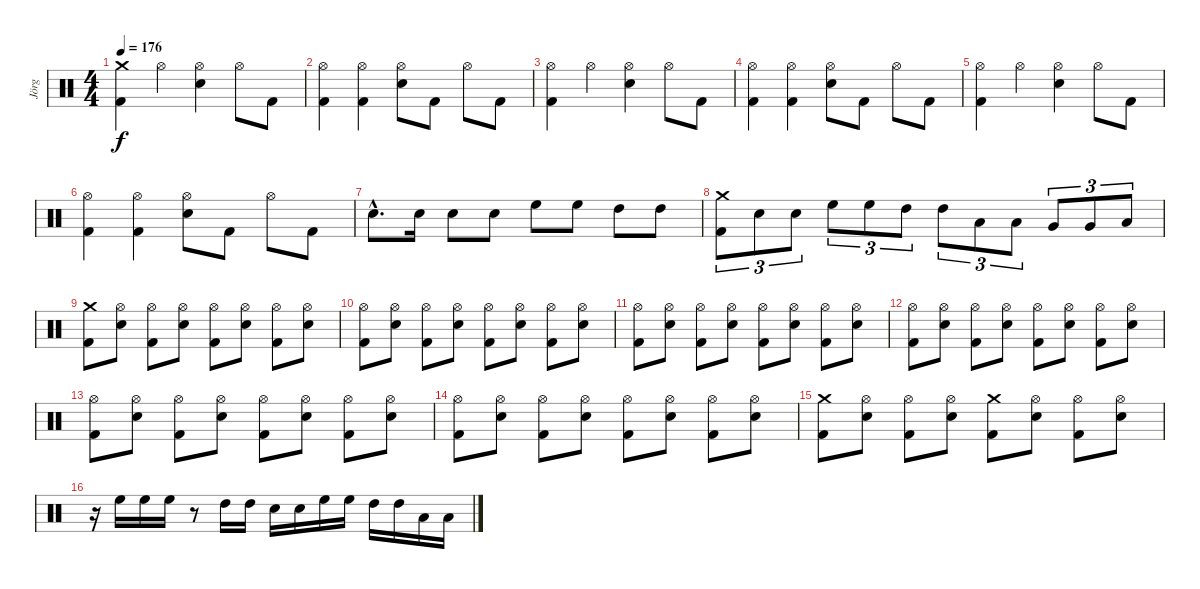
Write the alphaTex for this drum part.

\track ("Jörg" "Jörg") {instrument percussion}
\staff {score}
\articulation defaults
\ts (4 4)
\tempo 176
\clef neutral
\ks c
("Kick (hit) 2" "Crash medium (hit)").4{dy f} "Hi-Hat (open)".4 ("Snare (hit) 2" "Hi-Hat (open)").4 "Hi-Hat (open)".8 "Kick (hit) 2".8 |
("Hi-Hat (open)" "Kick (hit) 2").4 ("Hi-Hat (open)" "Kick (hit) 2").4 ("Hi-Hat (open)" "Snare (hit) 2").8 "Kick (hit) 2".8 "Hi-Hat (open)".8 "Kick (hit) 2".8 |
("Hi-Hat (open)" "Kick (hit) 2").4 "Hi-Hat (open)".4 ("Snare (hit) 2" "Hi-Hat (open)").4 "Hi-Hat (open)".8 "Kick (hit) 2".8 |
("Hi-Hat (open)" "Kick (hit) 2").4 ("Hi-Hat (open)" "Kick (hit) 2").4 ("Hi-Hat (open)" "Snare (hit) 2").8 "Kick (hit) 2".8 "Hi-Hat (open)".8 "Kick (hit) 2".8 |
("Hi-Hat (open)" "Kick (hit) 2").4 "Hi-Hat (open)".4 ("Snare (hit) 2" "Hi-Hat (open)").4 "Hi-Hat (open)".8 "Kick (hit) 2".8 |
("Hi-Hat (open)" "Kick (hit) 2").4 ("Hi-Hat (open)" "Kick (hit) 2").4 ("Hi-Hat (open)" "Snare (hit) 2").8 "Kick (hit) 2".8 "Hi-Hat (open)".8 "Kick (hit) 2".8 |
"Snare (hit) 2"{hac}.8{d} "Snare (hit) 2".16 "Snare (hit) 2".8 "Snare (hit) 2".8 "High Floor Tom (hit)".8 "High Floor Tom (hit)".8 "High Tom (hit)".8 "High Tom (hit)".8 |
("Kick (hit) 2" "Crash medium (hit)").8{tu (3 2)} "Snare (hit) 2".8{tu (3 2)} "Snare (hit) 2".8{tu (3 2)} "High Floor Tom (hit)".8{tu (3 2)} "High Floor Tom (hit)".8{tu (3 2)} "High Tom (hit)".8{tu (3 2)} "High Tom (hit)".8{tu (3 2)} "Low Tom (hit)".8{tu (3 2)} "Low Tom (hit)".8{tu (3 2)} "Very Low Tom (hit)".8{tu (3 2)} "Very Low Tom (hit)".8{tu (3 2)} "Low Floor Tom (hit)".8{tu (3 2)} |
("Crash medium (hit)" "Kick (hit) 2").8 ("Snare (hit) 2" "Hi-Hat (open)").8 ("Kick (hit) 2" "Hi-Hat (open)").8 ("Snare (hit) 2" "Hi-Hat (open)").8 ("Kick (hit) 2" "Hi-Hat (open)").8 ("Snare (hit) 2" "Hi-Hat (open)").8 ("Kick (hit) 2" "Hi-Hat (open)").8 ("Snare (hit) 2" "Hi-Hat (open)").8 |
("Hi-Hat (open)" "Kick (hit) 2").8 ("Snare (hit) 2" "Hi-Hat (open)").8 ("Kick (hit) 2" "Hi-Hat (open)").8 ("Snare (hit) 2" "Hi-Hat (open)").8 ("Kick (hit) 2" "Hi-Hat (open)").8 ("Snare (hit) 2" "Hi-Hat (open)").8 ("Kick (hit) 2" "Hi-Hat (open)").8 ("Snare (hit) 2" "Hi-Hat (open)").8 |
("Hi-Hat (open)" "Kick (hit) 2").8 ("Snare (hit) 2" "Hi-Hat (open)").8 ("Kick (hit) 2" "Hi-Hat (open)").8 ("Snare (hit) 2" "Hi-Hat (open)").8 ("Kick (hit) 2" "Hi-Hat (open)").8 ("Snare (hit) 2" "Hi-Hat (open)").8 ("Kick (hit) 2" "Hi-Hat (open)").8 ("Snare (hit) 2" "Hi-Hat (open)").8 |
("Hi-Hat (open)" "Kick (hit) 2").8 ("Snare (hit) 2" "Hi-Hat (open)").8 ("Kick (hit) 2" "Hi-Hat (open)").8 ("Snare (hit) 2" "Hi-Hat (open)").8 ("Kick (hit) 2" "Hi-Hat (open)").8 ("Snare (hit) 2" "Hi-Hat (open)").8 ("Kick (hit) 2" "Hi-Hat (open)").8 ("Snare (hit) 2" "Hi-Hat (open)").8 |
("Hi-Hat (open)" "Kick (hit) 2").8 ("Snare (hit) 2" "Hi-Hat (open)").8 ("Kick (hit) 2" "Hi-Hat (open)").8 ("Snare (hit) 2" "Hi-Hat (open)").8 ("Kick (hit) 2" "Hi-Hat (open)").8 ("Snare (hit) 2" "Hi-Hat (open)").8 ("Kick (hit) 2" "Hi-Hat (open)").8 ("Snare (hit) 2" "Hi-Hat (open)").8 |
("Hi-Hat (open)" "Kick (hit) 2").8 ("Snare (hit) 2" "Hi-Hat (open)").8 ("Kick (hit) 2" "Hi-Hat (open)").8 ("Snare (hit) 2" "Hi-Hat (open)").8 ("Kick (hit) 2" "Hi-Hat (open)").8 ("Snare (hit) 2" "Hi-Hat (open)").8 ("Kick (hit) 2" "Hi-Hat (open)").8 ("Snare (hit) 2" "Hi-Hat (open)").8 |
("Crash medium (hit)" "Kick (hit) 2").8 ("Snare (hit) 2" "Hi-Hat (open)").8 ("Kick (hit) 2" "Hi-Hat (open)").8 ("Snare (hit) 2" "Hi-Hat (open)").8 ("Crash medium (hit)" "Kick (hit) 2").8 ("Snare (hit) 2" "Hi-Hat (open)").8 ("Kick (hit) 2" "Hi-Hat (open)").8 ("Snare (hit) 2" "Hi-Hat (open)").8 |
r.16 "High Floor Tom (hit)".16 "High Floor Tom (hit)".16 "High Floor Tom (hit)".16 r.8 "High Tom (hit)".16 "High Tom (hit)".16 "Snare (hit) 2".16 "Snare (hit) 2".16 "High Floor Tom (hit)".16 "High Floor Tom (hit)".16 "High Tom (hit)".16 "High Tom (hit)".16 "Low Tom (hit)".16 "Low Tom (hit)".16
